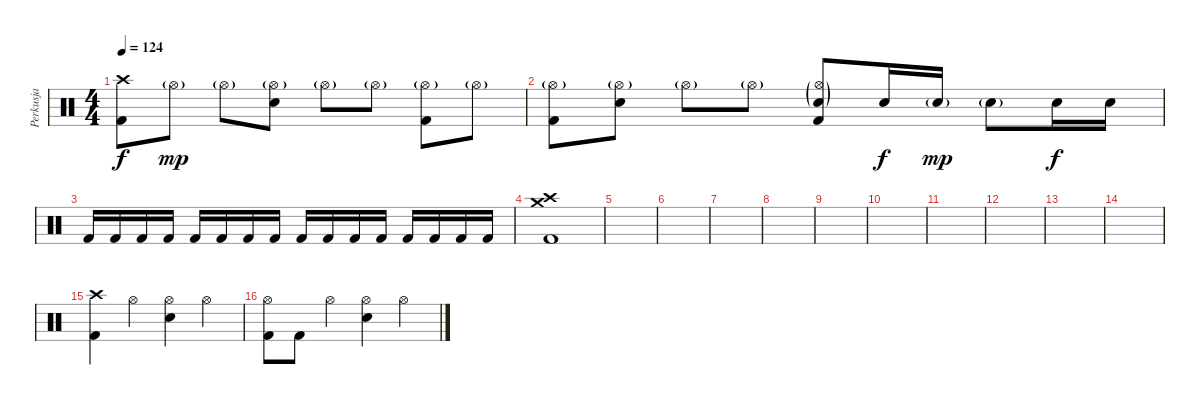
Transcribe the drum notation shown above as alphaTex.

\track ("Perkusja" "Perkusja") {instrument percussion}
\staff {score}
\articulation defaults
\ts (4 4)
\tempo 124
\clef neutral
\ks c
("Kick (hit) 2" "Crash high (hit)").8{dy f} "Hi-Hat (open)"{g}.8{dy mp} "Hi-Hat (open)"{g}.8 ("Snare (hit) 2" "Hi-Hat (open)"{g}).8 "Hi-Hat (open)"{g}.8 "Hi-Hat (open)"{g}.8 ("Kick (hit) 2" "Hi-Hat (open)"{g}).8 "Hi-Hat (open)"{g}.8 |
("Kick (hit) 2" "Hi-Hat (open)"{g}).8 ("Snare (hit) 2" "Hi-Hat (open)"{g}).8 "Hi-Hat (open)"{g}.8 "Hi-Hat (open)"{g}.8 ("Kick (hit) 2" "Snare (hit) 2"{g} "Hi-Hat (open)"{g}).8 "Snare (hit) 2".16{dy f} "Snare (hit) 2"{g}.16{dy mp} "Snare (hit) 2"{g}.8 "Snare (hit) 2".16{dy f} "Snare (hit) 2".16 |
"Kick (hit) 2".16 "Kick (hit) 2".16 "Kick (hit) 2".16 "Kick (hit) 2".16 "Kick (hit) 2".16 "Kick (hit) 2".16 "Kick (hit) 2".16 "Kick (hit) 2".16 "Kick (hit) 2".16 "Kick (hit) 2".16 "Kick (hit) 2".16 "Kick (hit) 2".16 "Kick (hit) 2".16 "Kick (hit) 2".16 "Kick (hit) 2".16 "Kick (hit) 2".16 |
("Kick (hit) 2" "Crash medium (hit)" "Crash high (hit)").1 |
|
|
|
|
|
|
|
|
|
|
("Kick (hit) 2" "Crash high (hit)").4 "Hi-Hat (open)".4 ("Snare (hit) 2" "Hi-Hat (open)").4 "Hi-Hat (open)".4 |
("Kick (hit) 2" "Hi-Hat (open)").8 "Kick (hit) 2".8 "Hi-Hat (open)".4 ("Snare (hit) 2" "Hi-Hat (open)").4 "Hi-Hat (open)".4
